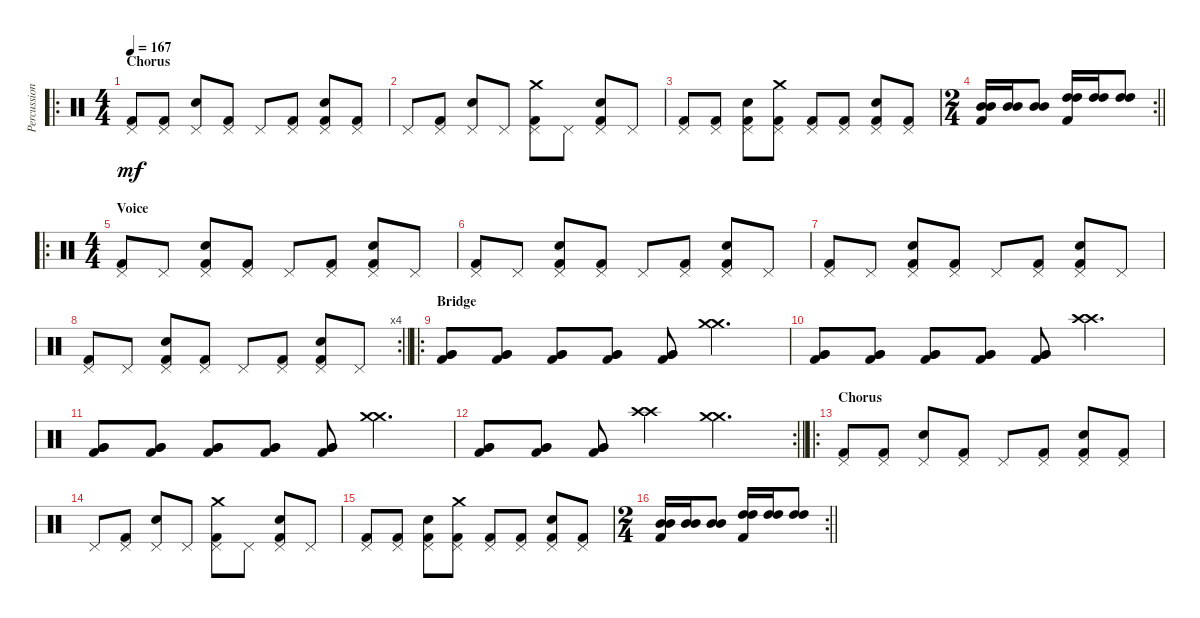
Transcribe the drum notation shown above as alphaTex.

\track ("Percussioni" "Percussion") {instrument percussion}
\staff {score}
\articulation defaults
\ro
\ts (4 4)
\section ("" "Chorus")
\tempo 167
\clef neutral
\ks c
("Pedal Hi-Hat (hit)" "Kick (hit) 2").8{dy mf} ("Pedal Hi-Hat (hit)" "Kick (hit) 2").8 ("Pedal Hi-Hat (hit)" "Electric Snare (hit)").8 ("Pedal Hi-Hat (hit)" "Kick (hit) 2").8 "Pedal Hi-Hat (hit)".8 ("Pedal Hi-Hat (hit)" "Kick (hit) 2").8 ("Pedal Hi-Hat (hit)" "Electric Snare (hit)" "Kick (hit) 2").8 ("Pedal Hi-Hat (hit)" "Kick (hit) 2").8 |
"Pedal Hi-Hat (hit)".8 ("Pedal Hi-Hat (hit)" "Kick (hit) 2").8 ("Pedal Hi-Hat (hit)" "Electric Snare (hit)").8 "Pedal Hi-Hat (hit)".8 ("Crash medium (hit)" "Pedal Hi-Hat (hit)" "Kick (hit) 2").8 "Pedal Hi-Hat (hit)".8 ("Pedal Hi-Hat (hit)" "Electric Snare (hit)" "Kick (hit) 2").8 "Pedal Hi-Hat (hit)".8 |
("Pedal Hi-Hat (hit)" "Kick (hit) 2").8 ("Pedal Hi-Hat (hit)" "Kick (hit) 2").8 ("Pedal Hi-Hat (hit)" "Electric Snare (hit)" "Kick (hit) 2").8 ("Crash medium (hit)" "Pedal Hi-Hat (hit)" "Kick (hit) 2").8 ("Pedal Hi-Hat (hit)" "Kick (hit) 2").8 ("Pedal Hi-Hat (hit)" "Kick (hit) 2").8 ("Pedal Hi-Hat (hit)" "Electric Snare (hit)" "Kick (hit) 2").8 ("Pedal Hi-Hat (hit)" "Kick (hit) 2").8 |
\rc 2
\ts (2 4)
\barLineRight lightlight
("Mid Tom (hit)" "Mid Tom (hit)" "Kick (hit) 2").16 ("Mid Tom (hit)" "Mid Tom (hit)").16 ("Mid Tom (hit)" "Mid Tom (hit)").8 ("High Tom (hit)" "High Tom (hit)" "Kick (hit) 2").16 ("High Tom (hit)" "High Tom (hit)").16 ("High Tom (hit)" "High Tom (hit)").8 |
\ro
\ts (4 4)
\section ("" "Voice")
("Pedal Hi-Hat (hit)" "Kick (hit) 2").8 "Pedal Hi-Hat (hit)".8 ("Pedal Hi-Hat (hit)" "Electric Snare (hit)" "Kick (hit) 2").8 ("Pedal Hi-Hat (hit)" "Kick (hit) 2").8 "Pedal Hi-Hat (hit)".8 ("Pedal Hi-Hat (hit)" "Kick (hit) 2").8 ("Pedal Hi-Hat (hit)" "Electric Snare (hit)" "Kick (hit) 2").8 "Pedal Hi-Hat (hit)".8 |
("Pedal Hi-Hat (hit)" "Kick (hit) 2").8 "Pedal Hi-Hat (hit)".8 ("Pedal Hi-Hat (hit)" "Electric Snare (hit)" "Kick (hit) 2").8 ("Pedal Hi-Hat (hit)" "Kick (hit) 2").8 "Pedal Hi-Hat (hit)".8 ("Pedal Hi-Hat (hit)" "Kick (hit) 2").8 ("Pedal Hi-Hat (hit)" "Electric Snare (hit)" "Kick (hit) 2").8 "Pedal Hi-Hat (hit)".8 |
("Pedal Hi-Hat (hit)" "Kick (hit) 2").8 "Pedal Hi-Hat (hit)".8 ("Pedal Hi-Hat (hit)" "Electric Snare (hit)" "Kick (hit) 2").8 ("Pedal Hi-Hat (hit)" "Kick (hit) 2").8 "Pedal Hi-Hat (hit)".8 ("Pedal Hi-Hat (hit)" "Kick (hit) 2").8 ("Pedal Hi-Hat (hit)" "Electric Snare (hit)" "Kick (hit) 2").8 "Pedal Hi-Hat (hit)".8 |
\rc 4
\barLineRight lightlight
("Pedal Hi-Hat (hit)" "Kick (hit) 2").8 "Pedal Hi-Hat (hit)".8 ("Pedal Hi-Hat (hit)" "Electric Snare (hit)" "Kick (hit) 2").8 ("Pedal Hi-Hat (hit)" "Kick (hit) 2").8 "Pedal Hi-Hat (hit)".8 ("Pedal Hi-Hat (hit)" "Kick (hit) 2").8 ("Pedal Hi-Hat (hit)" "Electric Snare (hit)" "Kick (hit) 2").8 "Pedal Hi-Hat (hit)".8 |
\ro
\section ("" "Bridge")
("Very Low Tom (hit)" "Very Low Tom (hit)" "Kick (hit) 2").8 ("Very Low Tom (hit)" "Very Low Tom (hit)" "Kick (hit) 2").8 ("Very Low Tom (hit)" "Very Low Tom (hit)" "Kick (hit) 2").8 ("Very Low Tom (hit)" "Very Low Tom (hit)" "Kick (hit) 2").8 ("Very Low Tom (hit)" "Very Low Tom (hit)" "Kick (hit) 2").8 ("Crash medium (hit)" "Crash medium (hit)").4{d} |
("Very Low Tom (hit)" "Very Low Tom (hit)" "Kick (hit) 2").8 ("Very Low Tom (hit)" "Very Low Tom (hit)" "Kick (hit) 2").8 ("Very Low Tom (hit)" "Very Low Tom (hit)" "Kick (hit) 2").8 ("Very Low Tom (hit)" "Very Low Tom (hit)" "Kick (hit) 2").8 ("Very Low Tom (hit)" "Very Low Tom (hit)" "Kick (hit) 2").8 ("Crash high (hit)" "Crash high (hit)").4{d} |
("Very Low Tom (hit)" "Very Low Tom (hit)" "Kick (hit) 2").8 ("Very Low Tom (hit)" "Very Low Tom (hit)" "Kick (hit) 2").8 ("Very Low Tom (hit)" "Very Low Tom (hit)" "Kick (hit) 2").8 ("Very Low Tom (hit)" "Very Low Tom (hit)" "Kick (hit) 2").8 ("Very Low Tom (hit)" "Very Low Tom (hit)" "Kick (hit) 2").8 ("Crash medium (hit)" "Crash medium (hit)").4{d} |
\rc 2
\barLineRight lightlight
("Very Low Tom (hit)" "Very Low Tom (hit)" "Kick (hit) 2").8 ("Very Low Tom (hit)" "Very Low Tom (hit)" "Kick (hit) 2").8 ("Very Low Tom (hit)" "Very Low Tom (hit)" "Kick (hit) 2").8 ("Crash high (hit)" "Crash high (hit)").4 ("Crash medium (hit)" "Crash medium (hit)").4{d} |
\ro
\section ("" "Chorus")
("Pedal Hi-Hat (hit)" "Kick (hit) 2").8 ("Pedal Hi-Hat (hit)" "Kick (hit) 2").8 ("Pedal Hi-Hat (hit)" "Electric Snare (hit)").8 ("Pedal Hi-Hat (hit)" "Kick (hit) 2").8 "Pedal Hi-Hat (hit)".8 ("Pedal Hi-Hat (hit)" "Kick (hit) 2").8 ("Pedal Hi-Hat (hit)" "Electric Snare (hit)" "Kick (hit) 2").8 ("Pedal Hi-Hat (hit)" "Kick (hit) 2").8 |
"Pedal Hi-Hat (hit)".8 ("Pedal Hi-Hat (hit)" "Kick (hit) 2").8 ("Pedal Hi-Hat (hit)" "Electric Snare (hit)").8 "Pedal Hi-Hat (hit)".8 ("Crash medium (hit)" "Pedal Hi-Hat (hit)" "Kick (hit) 2").8 "Pedal Hi-Hat (hit)".8 ("Pedal Hi-Hat (hit)" "Electric Snare (hit)" "Kick (hit) 2").8 "Pedal Hi-Hat (hit)".8 |
("Pedal Hi-Hat (hit)" "Kick (hit) 2").8 ("Pedal Hi-Hat (hit)" "Kick (hit) 2").8 ("Pedal Hi-Hat (hit)" "Electric Snare (hit)" "Kick (hit) 2").8 ("Crash medium (hit)" "Pedal Hi-Hat (hit)" "Kick (hit) 2").8 ("Pedal Hi-Hat (hit)" "Kick (hit) 2").8 ("Pedal Hi-Hat (hit)" "Kick (hit) 2").8 ("Pedal Hi-Hat (hit)" "Electric Snare (hit)" "Kick (hit) 2").8 ("Pedal Hi-Hat (hit)" "Kick (hit) 2").8 |
\rc 2
\ts (2 4)
\barLineRight lightlight
("Mid Tom (hit)" "Mid Tom (hit)" "Kick (hit) 2").16 ("Mid Tom (hit)" "Mid Tom (hit)").16 ("Mid Tom (hit)" "Mid Tom (hit)").8 ("High Tom (hit)" "High Tom (hit)" "Kick (hit) 2").16 ("High Tom (hit)" "High Tom (hit)").16 ("High Tom (hit)" "High Tom (hit)").8
